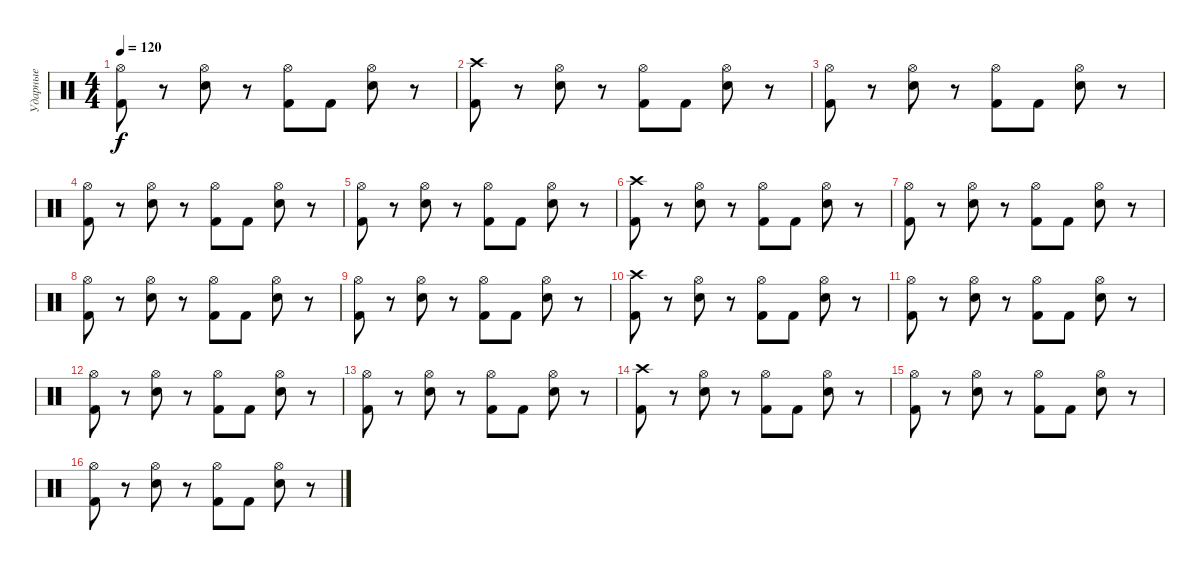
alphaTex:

\track ("Ударные" "Ударные") {instrument percussion}
\staff {score}
\articulation defaults
\ts (4 4)
\tempo 120
\clef neutral
\ks c
("Hi-Hat (open)" "Kick (hit) 2").8{dy f} r.8 ("Hi-Hat (open)" "Electric Snare (hit)").8 r.8 ("Hi-Hat (open)" "Kick (hit) 2").8 "Kick (hit) 2".8 ("Hi-Hat (open)" "Electric Snare (hit)").8 r.8 |
("Crash high (hit)" "Kick (hit) 2").8 r.8 ("Hi-Hat (open)" "Electric Snare (hit)").8 r.8 ("Hi-Hat (open)" "Kick (hit) 2").8 "Kick (hit) 2".8 ("Hi-Hat (open)" "Electric Snare (hit)").8 r.8 |
("Hi-Hat (open)" "Kick (hit) 2").8 r.8 ("Hi-Hat (open)" "Electric Snare (hit)").8 r.8 ("Hi-Hat (open)" "Kick (hit) 2").8 "Kick (hit) 2".8 ("Hi-Hat (open)" "Electric Snare (hit)").8 r.8 |
("Hi-Hat (open)" "Kick (hit) 2").8 r.8 ("Hi-Hat (open)" "Electric Snare (hit)").8 r.8 ("Hi-Hat (open)" "Kick (hit) 2").8 "Kick (hit) 2".8 ("Hi-Hat (open)" "Electric Snare (hit)").8 r.8 |
("Hi-Hat (open)" "Kick (hit) 2").8 r.8 ("Hi-Hat (open)" "Electric Snare (hit)").8 r.8 ("Hi-Hat (open)" "Kick (hit) 2").8 "Kick (hit) 2".8 ("Hi-Hat (open)" "Electric Snare (hit)").8 r.8 |
("Crash high (hit)" "Kick (hit) 2").8 r.8 ("Hi-Hat (open)" "Electric Snare (hit)").8 r.8 ("Hi-Hat (open)" "Kick (hit) 2").8 "Kick (hit) 2".8 ("Hi-Hat (open)" "Electric Snare (hit)").8 r.8 |
("Hi-Hat (open)" "Kick (hit) 2").8 r.8 ("Hi-Hat (open)" "Electric Snare (hit)").8 r.8 ("Hi-Hat (open)" "Kick (hit) 2").8 "Kick (hit) 2".8 ("Hi-Hat (open)" "Electric Snare (hit)").8 r.8 |
("Hi-Hat (open)" "Kick (hit) 2").8 r.8 ("Hi-Hat (open)" "Electric Snare (hit)").8 r.8 ("Hi-Hat (open)" "Kick (hit) 2").8 "Kick (hit) 2".8 ("Hi-Hat (open)" "Electric Snare (hit)").8 r.8 |
("Hi-Hat (open)" "Kick (hit) 2").8 r.8 ("Hi-Hat (open)" "Electric Snare (hit)").8 r.8 ("Hi-Hat (open)" "Kick (hit) 2").8 "Kick (hit) 2".8 ("Hi-Hat (open)" "Electric Snare (hit)").8 r.8 |
("Crash high (hit)" "Kick (hit) 2").8 r.8 ("Hi-Hat (open)" "Electric Snare (hit)").8 r.8 ("Hi-Hat (open)" "Kick (hit) 2").8 "Kick (hit) 2".8 ("Hi-Hat (open)" "Electric Snare (hit)").8 r.8 |
("Hi-Hat (open)" "Kick (hit) 2").8 r.8 ("Hi-Hat (open)" "Electric Snare (hit)").8 r.8 ("Hi-Hat (open)" "Kick (hit) 2").8 "Kick (hit) 2".8 ("Hi-Hat (open)" "Electric Snare (hit)").8 r.8 |
("Hi-Hat (open)" "Kick (hit) 2").8 r.8 ("Hi-Hat (open)" "Electric Snare (hit)").8 r.8 ("Hi-Hat (open)" "Kick (hit) 2").8 "Kick (hit) 2".8 ("Hi-Hat (open)" "Electric Snare (hit)").8 r.8 |
("Hi-Hat (open)" "Kick (hit) 2").8 r.8 ("Hi-Hat (open)" "Electric Snare (hit)").8 r.8 ("Hi-Hat (open)" "Kick (hit) 2").8 "Kick (hit) 2".8 ("Hi-Hat (open)" "Electric Snare (hit)").8 r.8 |
("Crash high (hit)" "Kick (hit) 2").8 r.8 ("Hi-Hat (open)" "Electric Snare (hit)").8 r.8 ("Hi-Hat (open)" "Kick (hit) 2").8 "Kick (hit) 2".8 ("Hi-Hat (open)" "Electric Snare (hit)").8 r.8 |
("Hi-Hat (open)" "Kick (hit) 2").8 r.8 ("Hi-Hat (open)" "Electric Snare (hit)").8 r.8 ("Hi-Hat (open)" "Kick (hit) 2").8 "Kick (hit) 2".8 ("Hi-Hat (open)" "Electric Snare (hit)").8 r.8 |
("Hi-Hat (open)" "Kick (hit) 2").8 r.8 ("Hi-Hat (open)" "Electric Snare (hit)").8 r.8 ("Hi-Hat (open)" "Kick (hit) 2").8 "Kick (hit) 2".8 ("Hi-Hat (open)" "Electric Snare (hit)").8 r.8
